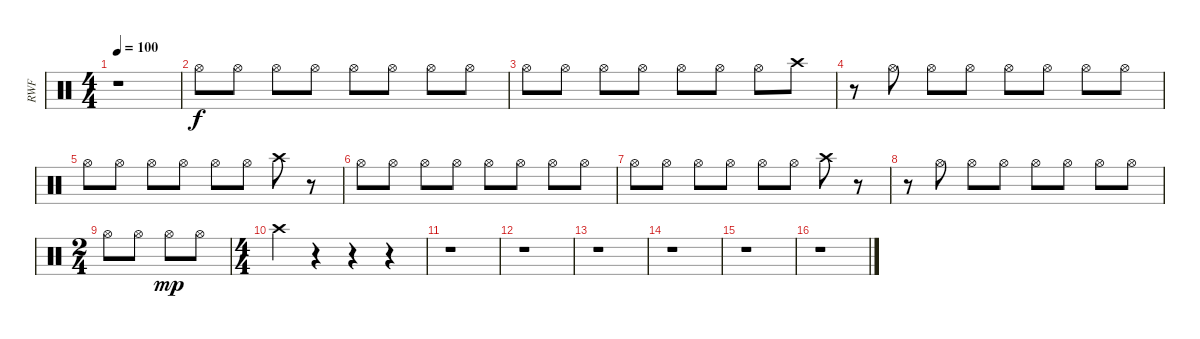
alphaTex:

\track ("RWF" "RWF") {instrument percussion}
\staff {score}
\articulation defaults
\ts (4 4)
\tempo 100
\clef neutral
\ks c
r.1{dy mp} |
"Hi-Hat (open)".8{dy f} "Hi-Hat (open)".8 "Hi-Hat (open)".8 "Hi-Hat (open)".8 "Hi-Hat (open)".8 "Hi-Hat (open)".8 "Hi-Hat (open)".8 "Hi-Hat (open)".8 |
"Hi-Hat (open)".8 "Hi-Hat (open)".8 "Hi-Hat (open)".8 "Hi-Hat (open)".8 "Hi-Hat (open)".8 "Hi-Hat (open)".8 "Hi-Hat (open)".8 "Crash high (hit)".8 |
r.8 "Hi-Hat (open)".8 "Hi-Hat (open)".8 "Hi-Hat (open)".8 "Hi-Hat (open)".8 "Hi-Hat (open)".8 "Hi-Hat (open)".8 "Hi-Hat (open)".8 |
"Hi-Hat (open)".8 "Hi-Hat (open)".8 "Hi-Hat (open)".8 "Hi-Hat (open)".8 "Hi-Hat (open)".8 "Hi-Hat (open)".8 "Crash high (hit)".8 r.8 |
"Hi-Hat (open)".8 "Hi-Hat (open)".8 "Hi-Hat (open)".8 "Hi-Hat (open)".8 "Hi-Hat (open)".8 "Hi-Hat (open)".8 "Hi-Hat (open)".8 "Hi-Hat (open)".8 |
"Hi-Hat (open)".8 "Hi-Hat (open)".8 "Hi-Hat (open)".8 "Hi-Hat (open)".8 "Hi-Hat (open)".8 "Hi-Hat (open)".8 "Crash high (hit)".8 r.8 |
r.8 "Hi-Hat (open)".8 "Hi-Hat (open)".8 "Hi-Hat (open)".8 "Hi-Hat (open)".8 "Hi-Hat (open)".8 "Hi-Hat (open)".8 "Hi-Hat (open)".8 |
\ts (2 4)
"Hi-Hat (open)".8 "Hi-Hat (open)".8 "Hi-Hat (open)".8{dy mp} "Hi-Hat (open)".8 |
\ts (4 4)
"Crash high (hit)".4 r.4 r.4 r.4 |
r.1 |
r.1 |
r.1 |
r.1 |
r.1 |
r.1
